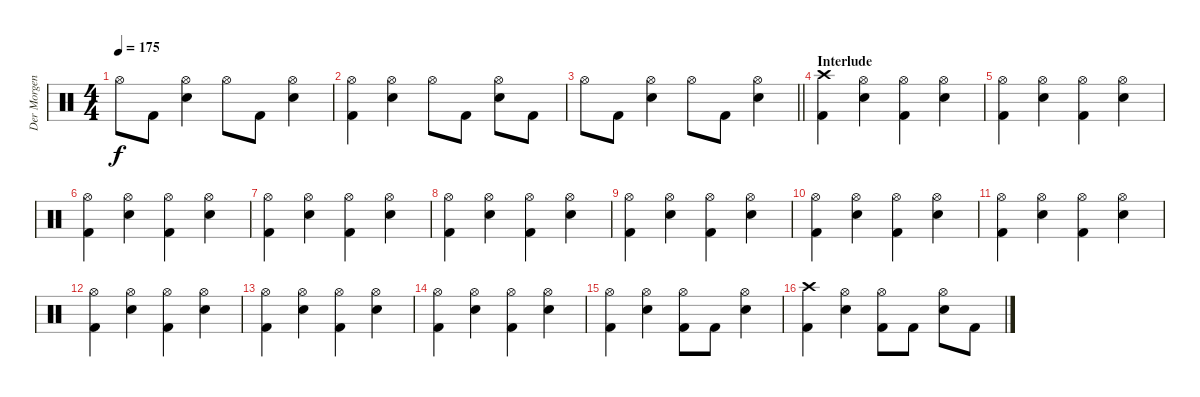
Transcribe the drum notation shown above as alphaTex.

\track ("Der Morgenstern" "Der Morgen") {instrument percussion}
\staff {score}
\articulation defaults
\ts (4 4)
\tempo 175
\clef neutral
\ks c "Hi-Hat (open)".8{dy f} "Kick (hit) 2".8
("Hi-Hat (open)" "Electric Snare (hit)").4 "Hi-Hat (open)".8 "Kick (hit) 2".8 ("Hi-Hat (open)" "Electric Snare (hit)").4 |
("Hi-Hat (open)" "Kick (hit) 2").4 ("Hi-Hat (open)" "Electric Snare (hit)").4 "Hi-Hat (open)".8 "Kick (hit) 2".8 ("Hi-Hat (open)" "Electric Snare (hit)").8 "Kick (hit) 2".8 |
\barLineRight lightlight "Hi-Hat (open)".8 "Kick (hit) 2".8
("Hi-Hat (open)" "Electric Snare (hit)").4 "Hi-Hat (open)".8 "Kick (hit) 2".8 ("Hi-Hat (open)" "Electric Snare (hit)").4 |
\section ("" "Interlude")
("Crash high (hit)" "Kick (hit) 2").4 ("Hi-Hat (open)" "Electric Snare (hit)").4 ("Hi-Hat (open)" "Kick (hit) 2").4 ("Hi-Hat (open)" "Electric Snare (hit)").4 |
("Hi-Hat (open)" "Kick (hit) 2").4 ("Hi-Hat (open)" "Electric Snare (hit)").4 ("Hi-Hat (open)" "Kick (hit) 2").4 ("Hi-Hat (open)" "Electric Snare (hit)").4 |
("Hi-Hat (open)" "Kick (hit) 2").4 ("Hi-Hat (open)" "Electric Snare (hit)").4 ("Hi-Hat (open)" "Kick (hit) 2").4 ("Hi-Hat (open)" "Electric Snare (hit)").4 |
("Hi-Hat (open)" "Kick (hit) 2").4 ("Hi-Hat (open)" "Electric Snare (hit)").4 ("Hi-Hat (open)" "Kick (hit) 2").4 ("Hi-Hat (open)" "Electric Snare (hit)").4 |
("Hi-Hat (open)" "Kick (hit) 2").4 ("Hi-Hat (open)" "Electric Snare (hit)").4 ("Hi-Hat (open)" "Kick (hit) 2").4 ("Hi-Hat (open)" "Electric Snare (hit)").4 |
("Hi-Hat (open)" "Kick (hit) 2").4 ("Hi-Hat (open)" "Electric Snare (hit)").4 ("Hi-Hat (open)" "Kick (hit) 2").4 ("Hi-Hat (open)" "Electric Snare (hit)").4 |
("Hi-Hat (open)" "Kick (hit) 2").4 ("Hi-Hat (open)" "Electric Snare (hit)").4 ("Hi-Hat (open)" "Kick (hit) 2").4 ("Hi-Hat (open)" "Electric Snare (hit)").4 |
("Hi-Hat (open)" "Kick (hit) 2").4 ("Hi-Hat (open)" "Electric Snare (hit)").4 ("Hi-Hat (open)" "Kick (hit) 2").4 ("Hi-Hat (open)" "Electric Snare (hit)").4 |
("Hi-Hat (open)" "Kick (hit) 2").4 ("Hi-Hat (open)" "Electric Snare (hit)").4 ("Hi-Hat (open)" "Kick (hit) 2").4 ("Hi-Hat (open)" "Electric Snare (hit)").4 |
("Hi-Hat (open)" "Kick (hit) 2").4 ("Hi-Hat (open)" "Electric Snare (hit)").4 ("Hi-Hat (open)" "Kick (hit) 2").4 ("Hi-Hat (open)" "Electric Snare (hit)").4 |
("Hi-Hat (open)" "Kick (hit) 2").4 ("Hi-Hat (open)" "Electric Snare (hit)").4 ("Hi-Hat (open)" "Kick (hit) 2").4 ("Hi-Hat (open)" "Electric Snare (hit)").4 |
("Hi-Hat (open)" "Kick (hit) 2").4 ("Hi-Hat (open)" "Electric Snare (hit)").4 ("Hi-Hat (open)" "Kick (hit) 2").8 "Kick (hit) 2".8 ("Hi-Hat (open)" "Electric Snare (hit)").4 |
("Crash high (hit)" "Kick (hit) 2").4 ("Hi-Hat (open)" "Electric Snare (hit)").4 ("Hi-Hat (open)" "Kick (hit) 2").8 "Kick (hit) 2".8 ("Hi-Hat (open)" "Electric Snare (hit)").8 "Kick (hit) 2".8
